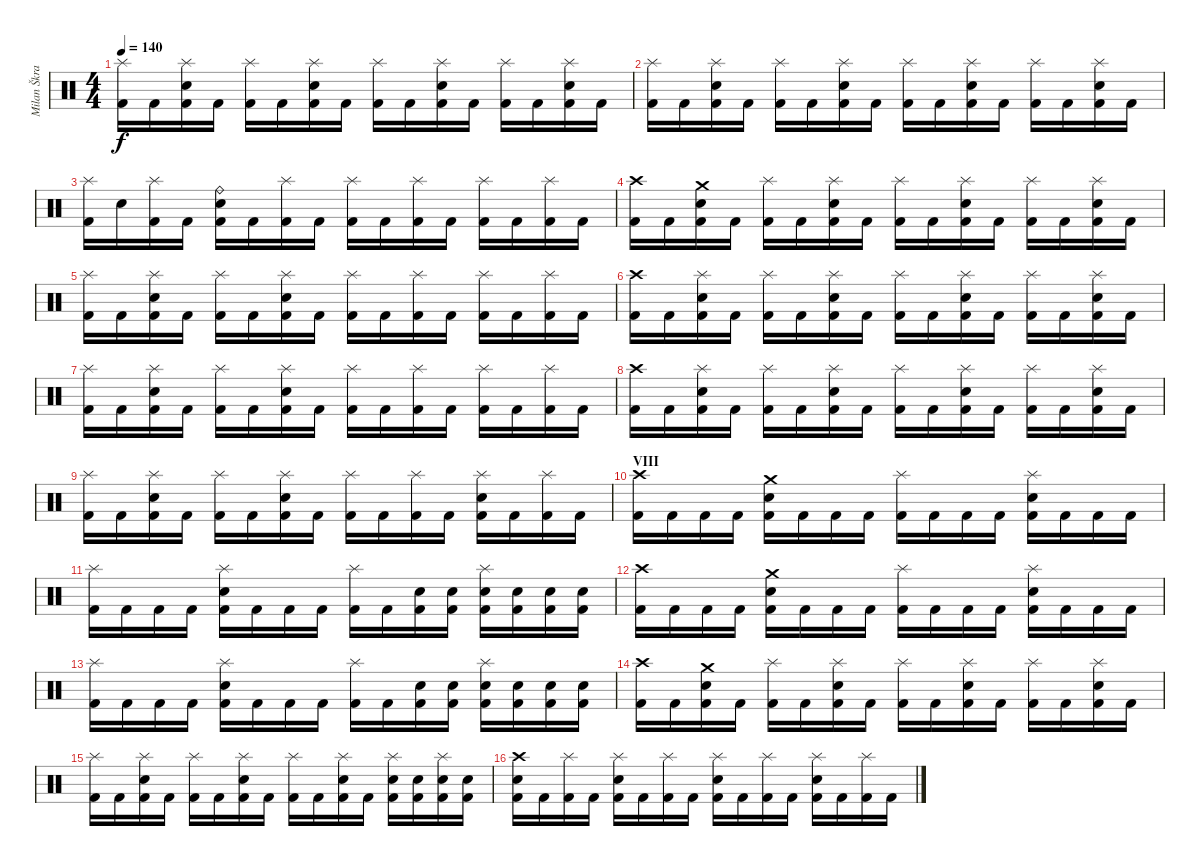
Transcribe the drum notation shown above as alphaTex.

\track ("Milan Škrabal" "Milan Škra") {instrument percussion}
\staff {score}
\articulation defaults
\ts (4 4)
\tempo 140
\clef neutral
\ks c
("Splash (hit)" "Kick (hit) 2").16{dy f} "Kick (hit) 2".16 ("Splash (hit)" "Electric Snare (hit)" "Kick (hit) 2").16 "Kick (hit) 2".16 ("Splash (hit)" "Kick (hit) 2").16 "Kick (hit) 2".16 ("Splash (hit)" "Electric Snare (hit)" "Kick (hit) 2").16 "Kick (hit) 2".16 ("Splash (hit)" "Kick (hit) 2").16 "Kick (hit) 2".16 ("Splash (hit)" "Electric Snare (hit)" "Kick (hit) 2").16 "Kick (hit) 2".16 ("Splash (hit)" "Kick (hit) 2").16 "Kick (hit) 2".16 ("Splash (hit)" "Electric Snare (hit)" "Kick (hit) 2").16 "Kick (hit) 2".16 |
("Splash (hit)" "Kick (hit) 2").16 "Kick (hit) 2".16 ("Splash (hit)" "Electric Snare (hit)" "Kick (hit) 2").16 "Kick (hit) 2".16 ("Splash (hit)" "Kick (hit) 2").16 "Kick (hit) 2".16 ("Splash (hit)" "Electric Snare (hit)" "Kick (hit) 2").16 "Kick (hit) 2".16 ("Splash (hit)" "Kick (hit) 2").16 "Kick (hit) 2".16 ("Splash (hit)" "Electric Snare (hit)" "Kick (hit) 2").16 "Kick (hit) 2".16 ("Splash (hit)" "Kick (hit) 2").16 "Kick (hit) 2".16 ("Splash (hit)" "Electric Snare (hit)" "Kick (hit) 2").16 "Kick (hit) 2".16 |
("Splash (hit)" "Kick (hit) 2").16 "Electric Snare (hit)".16 ("Splash (hit)" "Kick (hit) 2").16 "Kick (hit) 2".16 ("Ride (bell)" "Electric Snare (hit)" "Kick (hit) 2").16 "Kick (hit) 2".16 ("Splash (hit)" "Kick (hit) 2").16 "Kick (hit) 2".16 ("Splash (hit)" "Kick (hit) 2").16 "Kick (hit) 2".16 ("Splash (hit)" "Kick (hit) 2").16 "Kick (hit) 2".16 ("Splash (hit)" "Kick (hit) 2").16 "Kick (hit) 2".16 ("Splash (hit)" "Kick (hit) 2").16 "Kick (hit) 2".16 |
("Crash high (hit)" "Kick (hit) 2").16 "Kick (hit) 2".16 ("Crash medium (hit)" "Electric Snare (hit)" "Kick (hit) 2").16 "Kick (hit) 2".16 ("Splash (hit)" "Kick (hit) 2").16 "Kick (hit) 2".16 ("Splash (hit)" "Electric Snare (hit)" "Kick (hit) 2").16 "Kick (hit) 2".16 ("Splash (hit)" "Kick (hit) 2").16 "Kick (hit) 2".16 ("Splash (hit)" "Electric Snare (hit)" "Kick (hit) 2").16 "Kick (hit) 2".16 ("Splash (hit)" "Kick (hit) 2").16 "Kick (hit) 2".16 ("Splash (hit)" "Electric Snare (hit)" "Kick (hit) 2").16 "Kick (hit) 2".16 |
("Splash (hit)" "Kick (hit) 2").16 "Kick (hit) 2".16 ("Splash (hit)" "Electric Snare (hit)" "Kick (hit) 2").16 "Kick (hit) 2".16 ("Splash (hit)" "Kick (hit) 2").16 "Kick (hit) 2".16 ("Splash (hit)" "Electric Snare (hit)" "Kick (hit) 2").16 "Kick (hit) 2".16 ("Splash (hit)" "Kick (hit) 2").16 "Kick (hit) 2".16 ("Splash (hit)" "Kick (hit) 2").16 "Kick (hit) 2".16 ("Splash (hit)" "Kick (hit) 2").16 "Kick (hit) 2".16 ("Splash (hit)" "Kick (hit) 2").16 "Kick (hit) 2".16 |
("Crash high (hit)" "Kick (hit) 2").16 "Kick (hit) 2".16 ("Splash (hit)" "Electric Snare (hit)" "Kick (hit) 2").16 "Kick (hit) 2".16 ("Splash (hit)" "Kick (hit) 2").16 "Kick (hit) 2".16 ("Splash (hit)" "Electric Snare (hit)" "Kick (hit) 2").16 "Kick (hit) 2".16 ("Splash (hit)" "Kick (hit) 2").16 "Kick (hit) 2".16 ("Splash (hit)" "Electric Snare (hit)" "Kick (hit) 2").16 "Kick (hit) 2".16 ("Splash (hit)" "Kick (hit) 2").16 "Kick (hit) 2".16 ("Splash (hit)" "Electric Snare (hit)" "Kick (hit) 2").16 "Kick (hit) 2".16 |
("Splash (hit)" "Kick (hit) 2").16 "Kick (hit) 2".16 ("Splash (hit)" "Electric Snare (hit)" "Kick (hit) 2").16 "Kick (hit) 2".16 ("Splash (hit)" "Kick (hit) 2").16 "Kick (hit) 2".16 ("Splash (hit)" "Electric Snare (hit)" "Kick (hit) 2").16 "Kick (hit) 2".16 ("Splash (hit)" "Kick (hit) 2").16 "Kick (hit) 2".16 ("Splash (hit)" "Kick (hit) 2").16 "Kick (hit) 2".16 ("Splash (hit)" "Kick (hit) 2").16 "Kick (hit) 2".16 ("Splash (hit)" "Kick (hit) 2").16 "Kick (hit) 2".16 |
("Crash high (hit)" "Kick (hit) 2").16 "Kick (hit) 2".16 ("Splash (hit)" "Electric Snare (hit)" "Kick (hit) 2").16 "Kick (hit) 2".16 ("Splash (hit)" "Kick (hit) 2").16 "Kick (hit) 2".16 ("Splash (hit)" "Electric Snare (hit)" "Kick (hit) 2").16 "Kick (hit) 2".16 ("Splash (hit)" "Kick (hit) 2").16 "Kick (hit) 2".16 ("Splash (hit)" "Electric Snare (hit)" "Kick (hit) 2").16 "Kick (hit) 2".16 ("Splash (hit)" "Kick (hit) 2").16 "Kick (hit) 2".16 ("Splash (hit)" "Electric Snare (hit)" "Kick (hit) 2").16 "Kick (hit) 2".16 |
("Splash (hit)" "Kick (hit) 2").16 "Kick (hit) 2".16 ("Splash (hit)" "Electric Snare (hit)" "Kick (hit) 2").16 "Kick (hit) 2".16 ("Splash (hit)" "Kick (hit) 2").16 "Kick (hit) 2".16 ("Splash (hit)" "Electric Snare (hit)" "Kick (hit) 2").16 "Kick (hit) 2".16 ("Splash (hit)" "Kick (hit) 2").16 "Kick (hit) 2".16 ("Splash (hit)" "Kick (hit) 2").16 "Kick (hit) 2".16 ("Splash (hit)" "Electric Snare (hit)" "Kick (hit) 2").16 "Kick (hit) 2".16 ("Splash (hit)" "Kick (hit) 2").16 "Kick (hit) 2".16 |
\section ("" "VIII")
("Crash high (hit)" "Kick (hit) 2").16 "Kick (hit) 2".16 "Kick (hit) 2".16 "Kick (hit) 2".16 ("Crash medium (hit)" "Electric Snare (hit)" "Kick (hit) 2").16 "Kick (hit) 2".16 "Kick (hit) 2".16 "Kick (hit) 2".16 ("Splash (hit)" "Kick (hit) 2").16 "Kick (hit) 2".16 "Kick (hit) 2".16 "Kick (hit) 2".16 ("Splash (hit)" "Electric Snare (hit)" "Kick (hit) 2").16 "Kick (hit) 2".16 "Kick (hit) 2".16 "Kick (hit) 2".16 |
("Splash (hit)" "Kick (hit) 2").16 "Kick (hit) 2".16 "Kick (hit) 2".16 "Kick (hit) 2".16 ("Splash (hit)" "Electric Snare (hit)" "Kick (hit) 2").16 "Kick (hit) 2".16 "Kick (hit) 2".16 "Kick (hit) 2".16 ("Splash (hit)" "Kick (hit) 2").16 "Kick (hit) 2".16 ("Electric Snare (hit)" "Kick (hit) 2").16 ("Electric Snare (hit)" "Kick (hit) 2").16 ("Splash (hit)" "Electric Snare (hit)" "Kick (hit) 2").16 ("Electric Snare (hit)" "Kick (hit) 2").16 ("Electric Snare (hit)" "Kick (hit) 2").16 ("Electric Snare (hit)" "Kick (hit) 2").16 |
("Crash high (hit)" "Kick (hit) 2").16 "Kick (hit) 2".16 "Kick (hit) 2".16 "Kick (hit) 2".16 ("Crash medium (hit)" "Electric Snare (hit)" "Kick (hit) 2").16 "Kick (hit) 2".16 "Kick (hit) 2".16 "Kick (hit) 2".16 ("Splash (hit)" "Kick (hit) 2").16 "Kick (hit) 2".16 "Kick (hit) 2".16 "Kick (hit) 2".16 ("Splash (hit)" "Electric Snare (hit)" "Kick (hit) 2").16 "Kick (hit) 2".16 "Kick (hit) 2".16 "Kick (hit) 2".16 |
("Splash (hit)" "Kick (hit) 2").16 "Kick (hit) 2".16 "Kick (hit) 2".16 "Kick (hit) 2".16 ("Splash (hit)" "Electric Snare (hit)" "Kick (hit) 2").16 "Kick (hit) 2".16 "Kick (hit) 2".16 "Kick (hit) 2".16 ("Splash (hit)" "Kick (hit) 2").16 "Kick (hit) 2".16 ("Electric Snare (hit)" "Kick (hit) 2").16 ("Electric Snare (hit)" "Kick (hit) 2").16 ("Splash (hit)" "Electric Snare (hit)" "Kick (hit) 2").16 ("Electric Snare (hit)" "Kick (hit) 2").16 ("Electric Snare (hit)" "Kick (hit) 2").16 ("Electric Snare (hit)" "Kick (hit) 2").16 |
("Crash high (hit)" "Kick (hit) 2").16 "Kick (hit) 2".16 ("Crash medium (hit)" "Electric Snare (hit)" "Kick (hit) 2").16 "Kick (hit) 2".16 ("Splash (hit)" "Kick (hit) 2").16 "Kick (hit) 2".16 ("Splash (hit)" "Electric Snare (hit)" "Kick (hit) 2").16 "Kick (hit) 2".16 ("Splash (hit)" "Kick (hit) 2").16 "Kick (hit) 2".16 ("Splash (hit)" "Electric Snare (hit)" "Kick (hit) 2").16 "Kick (hit) 2".16 ("Splash (hit)" "Kick (hit) 2").16 "Kick (hit) 2".16 ("Splash (hit)" "Electric Snare (hit)" "Kick (hit) 2").16 "Kick (hit) 2".16 |
("Splash (hit)" "Kick (hit) 2").16 "Kick (hit) 2".16 ("Splash (hit)" "Electric Snare (hit)" "Kick (hit) 2").16 "Kick (hit) 2".16 ("Splash (hit)" "Kick (hit) 2").16 "Kick (hit) 2".16 ("Splash (hit)" "Electric Snare (hit)" "Kick (hit) 2").16 "Kick (hit) 2".16 ("Splash (hit)" "Kick (hit) 2").16 "Kick (hit) 2".16 ("Splash (hit)" "Electric Snare (hit)" "Kick (hit) 2").16 "Kick (hit) 2".16 ("Splash (hit)" "Electric Snare (hit)" "Kick (hit) 2").16 ("Electric Snare (hit)" "Kick (hit) 2").16 ("Splash (hit)" "Electric Snare (hit)" "Kick (hit) 2").16 ("Electric Snare (hit)" "Kick (hit) 2").16 |
("Crash high (hit)" "Electric Snare (hit)" "Kick (hit) 2").16 "Kick (hit) 2".16 ("Splash (hit)" "Kick (hit) 2").16 "Kick (hit) 2".16 ("Splash (hit)" "Electric Snare (hit)" "Kick (hit) 2").16 "Kick (hit) 2".16 ("Splash (hit)" "Kick (hit) 2").16 "Kick (hit) 2".16 ("Splash (hit)" "Electric Snare (hit)" "Kick (hit) 2").16 "Kick (hit) 2".16 ("Splash (hit)" "Kick (hit) 2").16 "Kick (hit) 2".16 ("Splash (hit)" "Electric Snare (hit)" "Kick (hit) 2").16 "Kick (hit) 2".16 ("Splash (hit)" "Kick (hit) 2").16 "Kick (hit) 2".16
